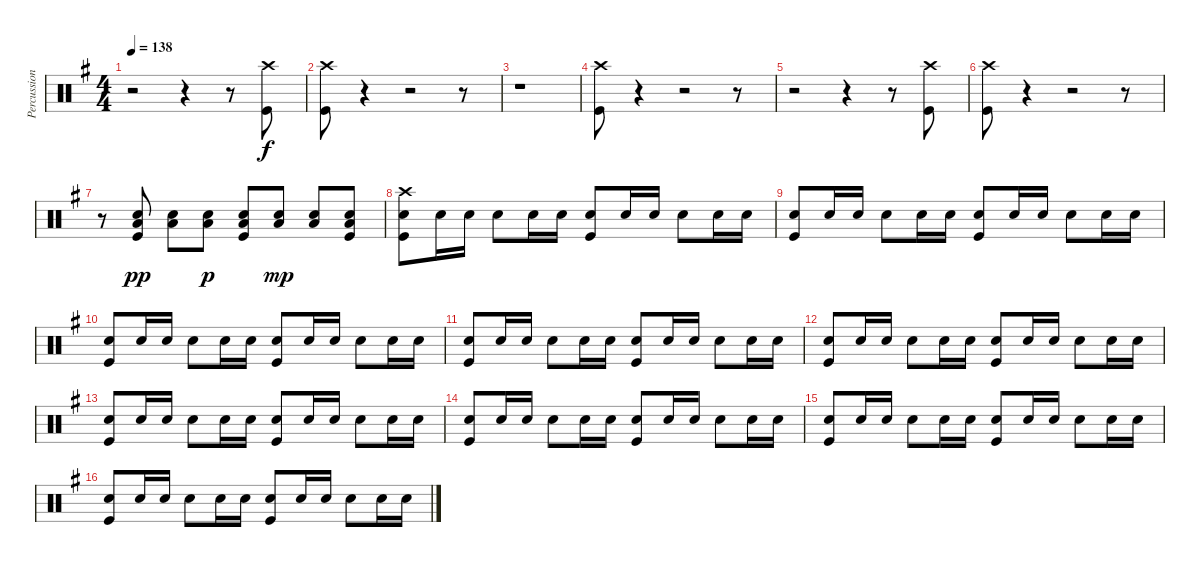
\track ("Percussion" "Percussion") {instrument percussion}
\staff {score}
\articulation defaults
\ts (4 4)
\tempo 138
\clef neutral
\ks g
r.2{dy f} r.4 r.8 ("Crash high (hit)" "Kick (hit)").8 |
("Crash high (hit)" "Kick (hit)").8 r.4 r.2 r.8 |
r.1 |
("Crash high (hit)" "Kick (hit)").8 r.4 r.2 r.8 |
r.2 r.4 r.8 ("Crash high (hit)" "Kick (hit)").8 |
("Crash high (hit)" "Kick (hit)").8 r.4 r.2 r.8 |
r.8 ("Snare (hit) 2" "Low Floor Tom (hit)" "Kick (hit)").8{dy pp} ("Snare (hit) 2" "Low Floor Tom (hit)").8 ("Snare (hit) 2" "Low Floor Tom (hit)").8{dy p} ("Snare (hit) 2" "Low Floor Tom (hit)" "Kick (hit)").8 ("Snare (hit) 2" "Low Floor Tom (hit)").8{dy mp} ("Snare (hit) 2" "Low Floor Tom (hit)").8 ("Snare (hit) 2" "Low Floor Tom (hit)" "Kick (hit)").8 |
("Crash high (hit)" "Snare (hit) 2" "Kick (hit)").8 "Snare (hit) 2".16 "Snare (hit) 2".16 "Snare (hit) 2".8 "Snare (hit) 2".16 "Snare (hit) 2".16 ("Snare (hit) 2" "Kick (hit)").8 "Snare (hit) 2".16 "Snare (hit) 2".16 "Snare (hit) 2".8 "Snare (hit) 2".16 "Snare (hit) 2".16 |
("Snare (hit) 2" "Kick (hit)").8 "Snare (hit) 2".16 "Snare (hit) 2".16 "Snare (hit) 2".8 "Snare (hit) 2".16 "Snare (hit) 2".16 ("Snare (hit) 2" "Kick (hit)").8 "Snare (hit) 2".16 "Snare (hit) 2".16 "Snare (hit) 2".8 "Snare (hit) 2".16 "Snare (hit) 2".16 |
("Snare (hit) 2" "Kick (hit)").8 "Snare (hit) 2".16 "Snare (hit) 2".16 "Snare (hit) 2".8 "Snare (hit) 2".16 "Snare (hit) 2".16 ("Snare (hit) 2" "Kick (hit)").8 "Snare (hit) 2".16 "Snare (hit) 2".16 "Snare (hit) 2".8 "Snare (hit) 2".16 "Snare (hit) 2".16 |
("Snare (hit) 2" "Kick (hit)").8 "Snare (hit) 2".16 "Snare (hit) 2".16 "Snare (hit) 2".8 "Snare (hit) 2".16 "Snare (hit) 2".16 ("Snare (hit) 2" "Kick (hit)").8 "Snare (hit) 2".16 "Snare (hit) 2".16 "Snare (hit) 2".8 "Snare (hit) 2".16 "Snare (hit) 2".16 |
("Snare (hit) 2" "Kick (hit)").8 "Snare (hit) 2".16 "Snare (hit) 2".16 "Snare (hit) 2".8 "Snare (hit) 2".16 "Snare (hit) 2".16 ("Snare (hit) 2" "Kick (hit)").8 "Snare (hit) 2".16 "Snare (hit) 2".16 "Snare (hit) 2".8 "Snare (hit) 2".16 "Snare (hit) 2".16 |
("Snare (hit) 2" "Kick (hit)").8 "Snare (hit) 2".16 "Snare (hit) 2".16 "Snare (hit) 2".8 "Snare (hit) 2".16 "Snare (hit) 2".16 ("Snare (hit) 2" "Kick (hit)").8 "Snare (hit) 2".16 "Snare (hit) 2".16 "Snare (hit) 2".8 "Snare (hit) 2".16 "Snare (hit) 2".16 |
("Snare (hit) 2" "Kick (hit)").8 "Snare (hit) 2".16 "Snare (hit) 2".16 "Snare (hit) 2".8 "Snare (hit) 2".16 "Snare (hit) 2".16 ("Snare (hit) 2" "Kick (hit)").8 "Snare (hit) 2".16 "Snare (hit) 2".16 "Snare (hit) 2".8 "Snare (hit) 2".16 "Snare (hit) 2".16 |
("Snare (hit) 2" "Kick (hit)").8 "Snare (hit) 2".16 "Snare (hit) 2".16 "Snare (hit) 2".8 "Snare (hit) 2".16 "Snare (hit) 2".16 ("Snare (hit) 2" "Kick (hit)").8 "Snare (hit) 2".16 "Snare (hit) 2".16 "Snare (hit) 2".8 "Snare (hit) 2".16 "Snare (hit) 2".16 |
("Snare (hit) 2" "Kick (hit)").8 "Snare (hit) 2".16 "Snare (hit) 2".16 "Snare (hit) 2".8 "Snare (hit) 2".16 "Snare (hit) 2".16 ("Snare (hit) 2" "Kick (hit)").8 "Snare (hit) 2".16 "Snare (hit) 2".16 "Snare (hit) 2".8 "Snare (hit) 2".16 "Snare (hit) 2".16
